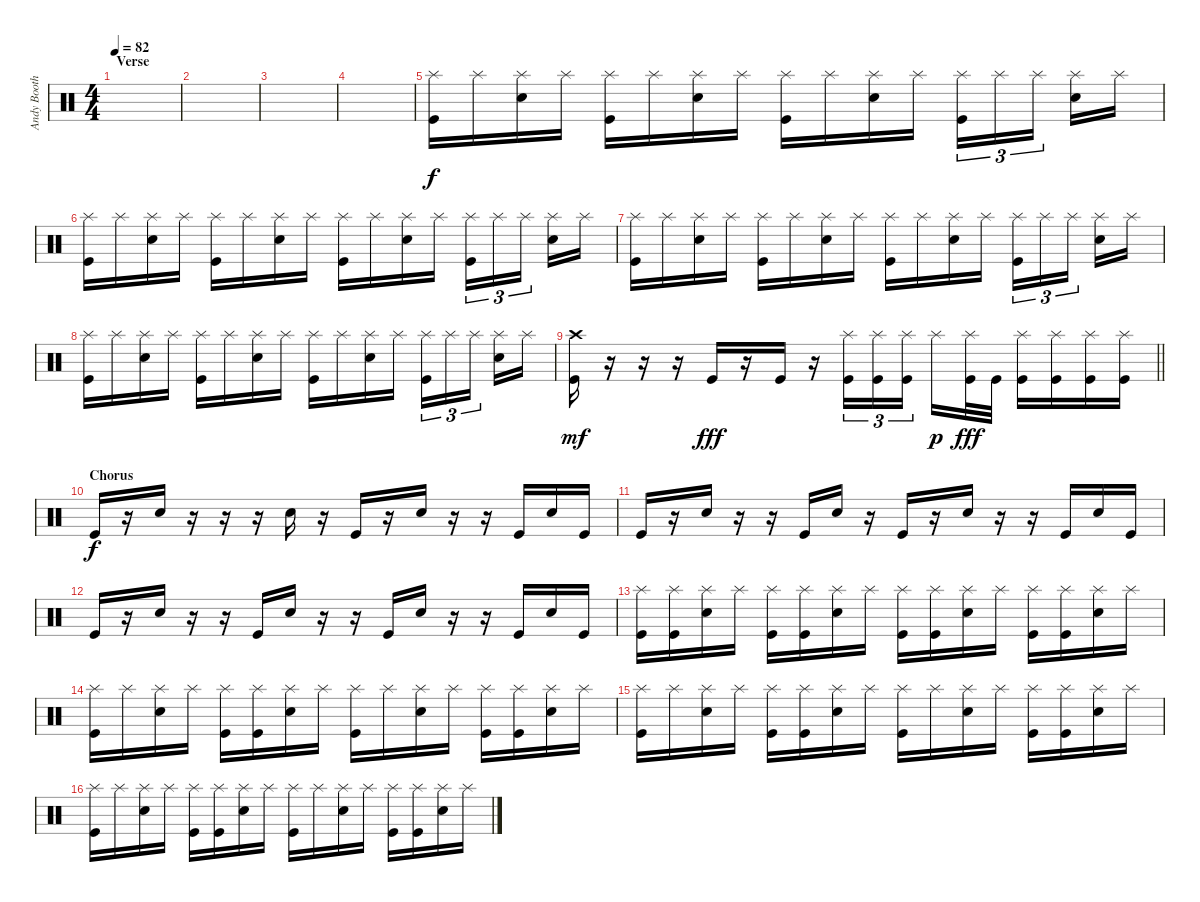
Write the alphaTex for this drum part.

\track ("Andy Booth" "Andy Booth") {instrument percussion}
\staff {score}
\articulation defaults
\ts (4 4)
\section ("" "Verse")
\tempo 82
\clef neutral
\ks c
|
|
|
|
("Splash (hit)" "Kick (hit)").16 "Splash (hit)".16 ("Splash (hit)" "Electric Snare (hit)").16 "Splash (hit)".16 ("Splash (hit)" "Kick (hit)").16 "Splash (hit)".16 ("Splash (hit)" "Electric Snare (hit)").16 "Splash (hit)".16 ("Splash (hit)" "Kick (hit)").16 "Splash (hit)".16 ("Splash (hit)" "Electric Snare (hit)").16 "Splash (hit)".16 ("Splash (hit)" "Kick (hit)").16{tu (3 2)} "Splash (hit)".16{tu (3 2)} "Splash (hit)".16{tu (3 2)} ("Splash (hit)" "Electric Snare (hit)").16 "Splash (hit)".16 |
("Splash (hit)" "Kick (hit)").16 "Splash (hit)".16 ("Splash (hit)" "Electric Snare (hit)").16 "Splash (hit)".16 ("Splash (hit)" "Kick (hit)").16 "Splash (hit)".16 ("Splash (hit)" "Electric Snare (hit)").16 "Splash (hit)".16 ("Splash (hit)" "Kick (hit)").16 "Splash (hit)".16 ("Splash (hit)" "Electric Snare (hit)").16 "Splash (hit)".16 ("Splash (hit)" "Kick (hit)").16{tu (3 2)} "Splash (hit)".16{tu (3 2)} "Splash (hit)".16{tu (3 2)} ("Splash (hit)" "Electric Snare (hit)").16 "Splash (hit)".16 |
("Splash (hit)" "Kick (hit)").16 "Splash (hit)".16 ("Splash (hit)" "Electric Snare (hit)").16 "Splash (hit)".16 ("Splash (hit)" "Kick (hit)").16 "Splash (hit)".16 ("Splash (hit)" "Electric Snare (hit)").16 "Splash (hit)".16 ("Splash (hit)" "Kick (hit)").16 "Splash (hit)".16 ("Splash (hit)" "Electric Snare (hit)").16 "Splash (hit)".16 ("Splash (hit)" "Kick (hit)").16{tu (3 2)} "Splash (hit)".16{tu (3 2)} "Splash (hit)".16{tu (3 2)} ("Splash (hit)" "Electric Snare (hit)").16 "Splash (hit)".16 |
("Splash (hit)" "Kick (hit)").16 "Splash (hit)".16 ("Splash (hit)" "Electric Snare (hit)").16 "Splash (hit)".16 ("Splash (hit)" "Kick (hit)").16 "Splash (hit)".16 ("Splash (hit)" "Electric Snare (hit)").16 "Splash (hit)".16 ("Splash (hit)" "Kick (hit)").16 "Splash (hit)".16 ("Splash (hit)" "Electric Snare (hit)").16 "Splash (hit)".16 ("Splash (hit)" "Kick (hit)").16{tu (3 2)} "Splash (hit)".16{tu (3 2)} "Splash (hit)".16{tu (3 2)} ("Splash (hit)" "Electric Snare (hit)").16 "Splash (hit)".16 |
\barLineRight lightlight
("Crash high (hit)" "Kick (hit)").16{dy mf} r.16 r.16 r.16 "Kick (hit)".16{dy fff} r.16 "Kick (hit)".16 r.16 ("Splash (hit)" "Kick (hit)").16{tu (3 2)} ("Splash (hit)" "Kick (hit)").16{tu (3 2)} ("Splash (hit)" "Kick (hit)").16{tu (3 2)} "Splash (hit)".16{dy p} ("Splash (hit)" "Kick (hit)").32{dy fff} "Kick (hit)".32 ("Splash (hit)" "Kick (hit)").16 ("Splash (hit)" "Kick (hit)").16 ("Splash (hit)" "Kick (hit)").16 ("Splash (hit)" "Kick (hit)").16 |
\section ("" "Chorus")
"Kick (hit)".16{dy f} r.16 "Electric Snare (hit)".16 r.16 r.16 r.16 "Electric Snare (hit)".16 r.16 "Kick (hit)".16 r.16 "Electric Snare (hit)".16 r.16 r.16 "Kick (hit)".16 "Electric Snare (hit)".16 "Kick (hit)".16 |
"Kick (hit)".16 r.16 "Electric Snare (hit)".16 r.16 r.16 "Kick (hit)".16 "Electric Snare (hit)".16 r.16 "Kick (hit)".16 r.16 "Electric Snare (hit)".16 r.16 r.16 "Kick (hit)".16 "Electric Snare (hit)".16 "Kick (hit)".16 |
"Kick (hit)".16 r.16 "Electric Snare (hit)".16 r.16 r.16 "Kick (hit)".16 "Electric Snare (hit)".16 r.16 r.16 "Kick (hit)".16 "Electric Snare (hit)".16 r.16 r.16 "Kick (hit)".16 "Electric Snare (hit)".16 "Kick (hit)".16 |
("Splash (hit)" "Kick (hit)").16 ("Splash (hit)" "Kick (hit)").16 ("Splash (hit)" "Electric Snare (hit)").16 "Splash (hit)".16 ("Splash (hit)" "Kick (hit)").16 ("Splash (hit)" "Kick (hit)").16 ("Splash (hit)" "Electric Snare (hit)").16 "Splash (hit)".16 ("Splash (hit)" "Kick (hit)").16 ("Splash (hit)" "Kick (hit)").16 ("Splash (hit)" "Electric Snare (hit)").16 "Splash (hit)".16 ("Splash (hit)" "Kick (hit)").16 ("Splash (hit)" "Kick (hit)").16 ("Splash (hit)" "Electric Snare (hit)").16 "Splash (hit)".16 |
("Splash (hit)" "Kick (hit)").16 "Splash (hit)".16 ("Splash (hit)" "Electric Snare (hit)").16 "Splash (hit)".16 ("Splash (hit)" "Kick (hit)").16 ("Splash (hit)" "Kick (hit)").16 ("Splash (hit)" "Electric Snare (hit)").16 "Splash (hit)".16 ("Splash (hit)" "Kick (hit)").16 "Splash (hit)".16 ("Splash (hit)" "Electric Snare (hit)").16 "Splash (hit)".16 ("Splash (hit)" "Kick (hit)").16 ("Splash (hit)" "Kick (hit)").16 ("Splash (hit)" "Electric Snare (hit)").16 "Splash (hit)".16 |
("Splash (hit)" "Kick (hit)").16 "Splash (hit)".16 ("Splash (hit)" "Electric Snare (hit)").16 "Splash (hit)".16 ("Splash (hit)" "Kick (hit)").16 ("Splash (hit)" "Kick (hit)").16 ("Splash (hit)" "Electric Snare (hit)").16 "Splash (hit)".16 ("Splash (hit)" "Kick (hit)").16 "Splash (hit)".16 ("Splash (hit)" "Electric Snare (hit)").16 "Splash (hit)".16 ("Splash (hit)" "Kick (hit)").16 ("Splash (hit)" "Kick (hit)").16 ("Splash (hit)" "Electric Snare (hit)").16 "Splash (hit)".16 |
("Splash (hit)" "Kick (hit)").16 "Splash (hit)".16 ("Splash (hit)" "Electric Snare (hit)").16 "Splash (hit)".16 ("Splash (hit)" "Kick (hit)").16 ("Splash (hit)" "Kick (hit)").16 ("Splash (hit)" "Electric Snare (hit)").16 "Splash (hit)".16 ("Splash (hit)" "Kick (hit)").16 "Splash (hit)".16 ("Splash (hit)" "Electric Snare (hit)").16 "Splash (hit)".16 ("Splash (hit)" "Kick (hit)").16 ("Splash (hit)" "Kick (hit)").16 ("Splash (hit)" "Electric Snare (hit)").16 "Splash (hit)".16
